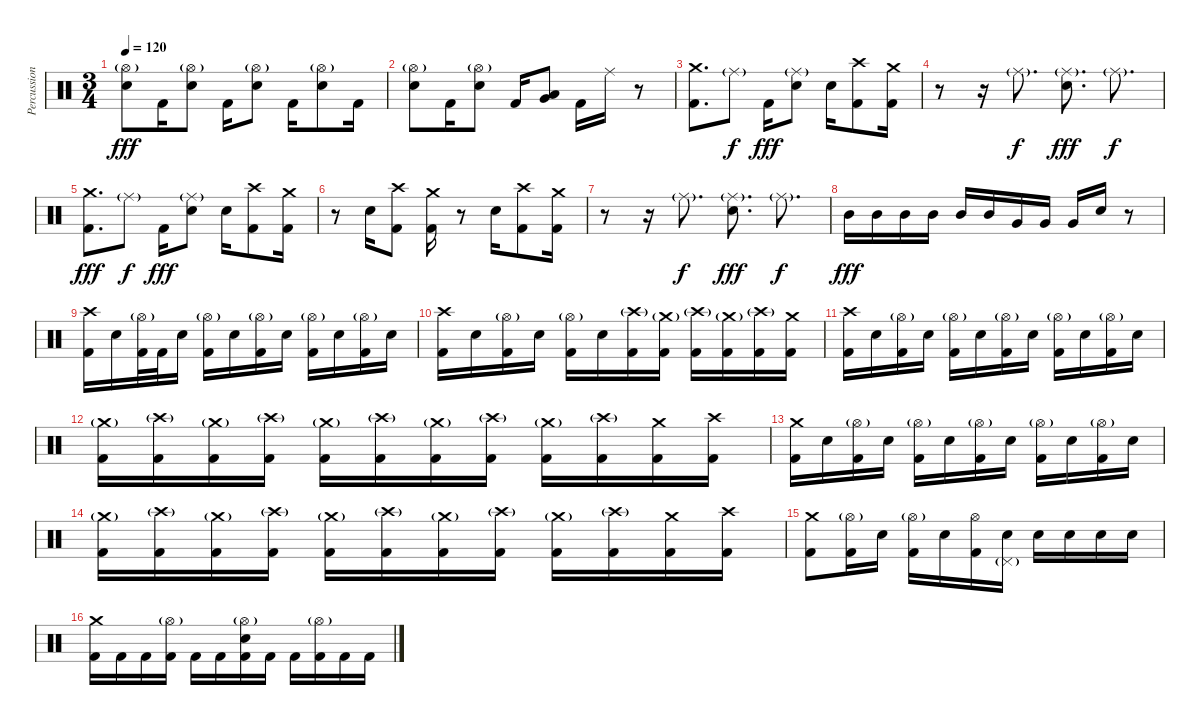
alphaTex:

\track ("Percussion" "Percussion") {instrument percussion}
\staff {score}
\articulation defaults
\ts (3 4)
\tempo 120
\clef neutral
\ks c
("Hi-Hat (open)"{g} "Electric Snare (hit)").8{dy fff} "Kick (hit) 2".16 ("Hi-Hat (open)"{g} "Electric Snare (hit)").8 "Kick (hit) 2".16 ("Hi-Hat (open)"{g} "Electric Snare (hit)").8 "Kick (hit) 2".16 ("Hi-Hat (open)"{g} "Electric Snare (hit)").8 "Kick (hit) 2".16 |
("Hi-Hat (open)"{g} "Electric Snare (hit)").8 "Kick (hit) 2".16 ("Hi-Hat (open)"{g} "Electric Snare (hit)").8 "Kick (hit) 2".16 ("Low Tom (hit)" "Very Low Tom (hit)").8 "Kick (hit) 2".16 "Ride (middle)".16 r.8 |
("Crash medium (hit)" "Kick (hit) 2").8{d} "Ride (middle)"{g}.8{dy f} "Kick (hit) 2".16{dy fff} ("Ride (middle)"{g} "Electric Snare (hit)").8 "Electric Snare (hit)".16 ("Crash high (hit)" "Kick (hit) 2").8 ("Crash medium (hit)" "Kick (hit) 2").16 |
r.8 r.16 "Ride (middle)"{g}.8{d dy f} ("Ride (middle)"{g} "Electric Snare (hit)").8{d dy fff} "Ride (middle)"{g}.8{d dy f} |
("Crash medium (hit)" "Kick (hit) 2").8{d dy fff} "Ride (middle)"{g}.8{dy f} "Kick (hit) 2".16{dy fff} ("Ride (middle)"{g} "Electric Snare (hit)").8 "Electric Snare (hit)".16 ("Crash high (hit)" "Kick (hit) 2").8 ("Crash medium (hit)" "Kick (hit) 2").16 |
r.8 "Electric Snare (hit)".16 ("Crash high (hit)" "Kick (hit) 2").8 ("Crash medium (hit)" "Kick (hit) 2").16 r.8 "Electric Snare (hit)".16 ("Crash high (hit)" "Kick (hit) 2").8 ("Crash medium (hit)" "Kick (hit) 2").16 |
r.8 r.16 "Ride (middle)"{g}.8{d dy f} ("Ride (middle)"{g} "Electric Snare (hit)").8{d dy fff} "Ride (middle)"{g}.8{d dy f} |
"Mid Tom (hit)".16{dy fff} "Mid Tom (hit)".16 "Mid Tom (hit)".16 "Mid Tom (hit)".16 "Mid Tom (hit)".16 "Mid Tom (hit)".16 "Very Low Tom (hit)".16 "Very Low Tom (hit)".16 "Very Low Tom (hit)".16 "Electric Snare (hit)".16 r.8 |
("Crash high (hit)" "Kick (hit) 2").16 "Electric Snare (hit)".16 ("Hi-Hat (open)"{g} "Kick (hit) 2").32 "Kick (hit) 2".32 "Electric Snare (hit)".16 ("Hi-Hat (open)"{g} "Kick (hit) 2").16 "Electric Snare (hit)".16 ("Hi-Hat (open)"{g} "Kick (hit) 2").16 "Electric Snare (hit)".16 ("Hi-Hat (open)"{g} "Kick (hit) 2").16 "Electric Snare (hit)".16 ("Hi-Hat (open)"{g} "Kick (hit) 2").16 "Electric Snare (hit)".16 |
("Crash high (hit)" "Kick (hit) 2").16 "Electric Snare (hit)".16 ("Hi-Hat (open)"{g} "Kick (hit) 2").16 "Electric Snare (hit)".16 ("Hi-Hat (open)"{g} "Kick (hit) 2").16 "Electric Snare (hit)".16 ("Crash high (hit)"{g} "Kick (hit) 2").16 ("Crash medium (hit)"{g} "Kick (hit) 2").16 ("Crash high (hit)"{g} "Kick (hit) 2").16 ("Crash medium (hit)"{g} "Kick (hit) 2").16 ("Crash high (hit)"{g} "Kick (hit) 2").16 ("Crash medium (hit)" "Kick (hit) 2").16 |
("Crash high (hit)" "Kick (hit) 2").16 "Electric Snare (hit)".16 ("Hi-Hat (open)"{g} "Kick (hit) 2").16 "Electric Snare (hit)".16 ("Hi-Hat (open)"{g} "Kick (hit) 2").16 "Electric Snare (hit)".16 ("Hi-Hat (open)"{g} "Kick (hit) 2").16 "Electric Snare (hit)".16 ("Hi-Hat (open)"{g} "Kick (hit) 2").16 "Electric Snare (hit)".16 ("Hi-Hat (open)"{g} "Kick (hit) 2").16 "Electric Snare (hit)".16 |
("Crash medium (hit)"{g} "Kick (hit) 2").16 ("Crash high (hit)"{g} "Kick (hit) 2").16 ("Crash medium (hit)"{g} "Kick (hit) 2").16 ("Crash high (hit)"{g} "Kick (hit) 2").16 ("Crash medium (hit)"{g} "Kick (hit) 2").16 ("Crash high (hit)"{g} "Kick (hit) 2").16 ("Crash medium (hit)"{g} "Kick (hit) 2").16 ("Crash high (hit)"{g} "Kick (hit) 2").16 ("Crash medium (hit)"{g} "Kick (hit) 2").16 ("Crash high (hit)"{g} "Kick (hit) 2").16 ("Crash medium (hit)" "Kick (hit) 2").16 ("Crash high (hit)" "Kick (hit) 2").16 |
("Crash medium (hit)" "Kick (hit) 2").16 "Electric Snare (hit)".16 ("Hi-Hat (open)"{g} "Kick (hit) 2").16 "Electric Snare (hit)".16 ("Hi-Hat (open)"{g} "Kick (hit) 2").16 "Electric Snare (hit)".16 ("Hi-Hat (open)"{g} "Kick (hit) 2").16 "Electric Snare (hit)".16 ("Hi-Hat (open)"{g} "Kick (hit) 2").16 "Electric Snare (hit)".16 ("Hi-Hat (open)"{g} "Kick (hit) 2").16 "Electric Snare (hit)".16 |
("Crash medium (hit)"{g} "Kick (hit) 2").16 ("Crash high (hit)"{g} "Kick (hit) 2").16 ("Crash medium (hit)"{g} "Kick (hit) 2").16 ("Crash high (hit)"{g} "Kick (hit) 2").16 ("Crash medium (hit)"{g} "Kick (hit) 2").16 ("Crash high (hit)"{g} "Kick (hit) 2").16 ("Crash medium (hit)"{g} "Kick (hit) 2").16 ("Crash high (hit)"{g} "Kick (hit) 2").16 ("Crash medium (hit)"{g} "Kick (hit) 2").16 ("Crash high (hit)"{g} "Kick (hit) 2").16 ("Crash medium (hit)" "Kick (hit) 2").16 ("Crash high (hit)" "Kick (hit) 2").16 |
("Crash medium (hit)" "Kick (hit) 2").8 ("Hi-Hat (open)"{g} "Kick (hit) 2").16 "Electric Snare (hit)".16 ("Hi-Hat (open)"{g} "Kick (hit) 2").16 "Electric Snare (hit)".16 ("Hi-Hat (open)" "Kick (hit) 2").16 ("Electric Snare (hit)" "Pedal Hi-Hat (hit)"{g}).16 "Electric Snare (hit)".16 "Electric Snare (hit)".16 "Electric Snare (hit)".16 "Electric Snare (hit)".16 |
("Crash medium (hit)" "Kick (hit) 2").16 "Kick (hit) 2".16 "Kick (hit) 2".16 ("Hi-Hat (open)"{g} "Kick (hit) 2").16 "Kick (hit) 2".16 "Kick (hit) 2".16 ("Hi-Hat (open)"{g} "Electric Snare (hit)" "Kick (hit) 2").16 "Kick (hit) 2".16 "Kick (hit) 2".16 ("Hi-Hat (open)"{g} "Kick (hit) 2").16 "Kick (hit) 2".16 "Kick (hit) 2".16
